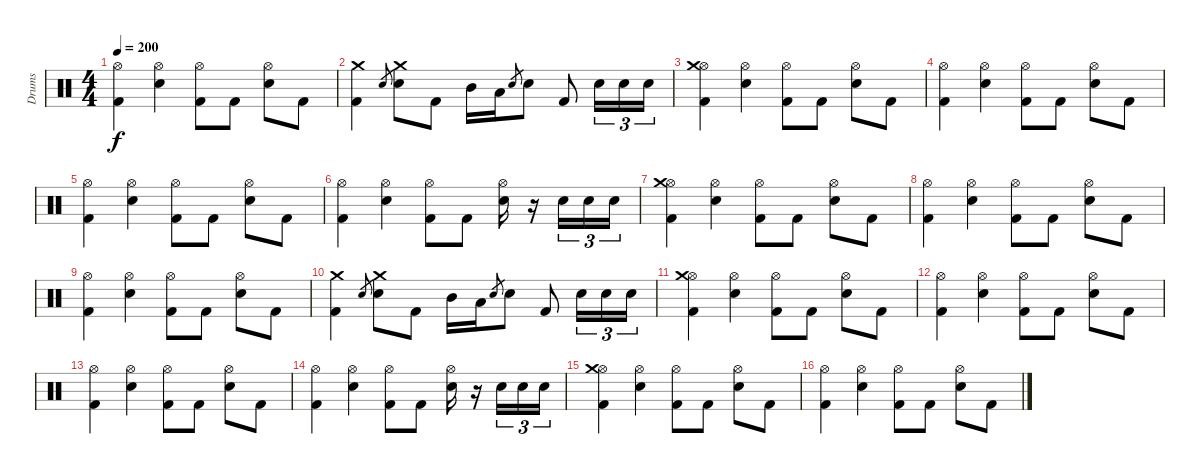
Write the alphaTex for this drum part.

\track ("Drums" "Drums") {instrument percussion}
\staff {score}
\articulation defaults
\ts (4 4)
\tempo 200
\clef neutral
\ks c
("Hi-Hat (open)" "Kick (hit) 2").4{dy f} ("Hi-Hat (open)" "Snare (hit) 2").4 ("Hi-Hat (open)" "Kick (hit) 2").8 "Kick (hit) 2".8 ("Hi-Hat (open)" "Snare (hit) 2").8 "Kick (hit) 2".8 |
("Crash medium (hit)" "Kick (hit) 2").4 "Snare (hit) 2".8{gr} ("Crash medium (hit)" "Snare (hit) 2").8 "Kick (hit) 2".8 "Mid Tom (hit)".16 "Low Tom (hit)".16 "Snare (hit) 2".8{gr} "Snare (hit) 2".8 "Kick (hit) 2".8 "Snare (hit) 2".16{tu (3 2)} "Snare (hit) 2".16{tu (3 2)} "Snare (hit) 2".16{tu (3 2)} |
("Hi-Hat (open)" "Crash medium (hit)" "Kick (hit) 2").4 ("Hi-Hat (open)" "Snare (hit) 2").4 ("Hi-Hat (open)" "Kick (hit) 2").8 "Kick (hit) 2".8 ("Hi-Hat (open)" "Snare (hit) 2").8 "Kick (hit) 2".8 |
("Hi-Hat (open)" "Kick (hit) 2").4 ("Hi-Hat (open)" "Snare (hit) 2").4 ("Hi-Hat (open)" "Kick (hit) 2").8 "Kick (hit) 2".8 ("Hi-Hat (open)" "Snare (hit) 2").8 "Kick (hit) 2".8 |
("Hi-Hat (open)" "Kick (hit) 2").4 ("Hi-Hat (open)" "Snare (hit) 2").4 ("Hi-Hat (open)" "Kick (hit) 2").8 "Kick (hit) 2".8 ("Hi-Hat (open)" "Snare (hit) 2").8 "Kick (hit) 2".8 |
("Hi-Hat (open)" "Kick (hit) 2").4 ("Hi-Hat (open)" "Snare (hit) 2").4 ("Hi-Hat (open)" "Kick (hit) 2").8 "Kick (hit) 2".8 ("Hi-Hat (open)" "Snare (hit) 2").16 r.16 "Snare (hit) 2".16{tu (3 2)} "Snare (hit) 2".16{tu (3 2)} "Snare (hit) 2".16{tu (3 2)} |
("Hi-Hat (open)" "Crash medium (hit)" "Kick (hit) 2").4 ("Hi-Hat (open)" "Snare (hit) 2").4 ("Hi-Hat (open)" "Kick (hit) 2").8 "Kick (hit) 2".8 ("Hi-Hat (open)" "Snare (hit) 2").8 "Kick (hit) 2".8 |
("Hi-Hat (open)" "Kick (hit) 2").4 ("Hi-Hat (open)" "Snare (hit) 2").4 ("Hi-Hat (open)" "Kick (hit) 2").8 "Kick (hit) 2".8 ("Hi-Hat (open)" "Snare (hit) 2").8 "Kick (hit) 2".8 |
("Hi-Hat (open)" "Kick (hit) 2").4 ("Hi-Hat (open)" "Snare (hit) 2").4 ("Hi-Hat (open)" "Kick (hit) 2").8 "Kick (hit) 2".8 ("Hi-Hat (open)" "Snare (hit) 2").8 "Kick (hit) 2".8 |
("Crash medium (hit)" "Kick (hit) 2").4 "Snare (hit) 2".8{gr} ("Crash medium (hit)" "Snare (hit) 2").8 "Kick (hit) 2".8 "Mid Tom (hit)".16 "Low Tom (hit)".16 "Snare (hit) 2".8{gr} "Snare (hit) 2".8 "Kick (hit) 2".8 "Snare (hit) 2".16{tu (3 2)} "Snare (hit) 2".16{tu (3 2)} "Snare (hit) 2".16{tu (3 2)} |
("Hi-Hat (open)" "Crash medium (hit)" "Kick (hit) 2").4 ("Hi-Hat (open)" "Snare (hit) 2").4 ("Hi-Hat (open)" "Kick (hit) 2").8 "Kick (hit) 2".8 ("Hi-Hat (open)" "Snare (hit) 2").8 "Kick (hit) 2".8 |
("Hi-Hat (open)" "Kick (hit) 2").4 ("Hi-Hat (open)" "Snare (hit) 2").4 ("Hi-Hat (open)" "Kick (hit) 2").8 "Kick (hit) 2".8 ("Hi-Hat (open)" "Snare (hit) 2").8 "Kick (hit) 2".8 |
("Hi-Hat (open)" "Kick (hit) 2").4 ("Hi-Hat (open)" "Snare (hit) 2").4 ("Hi-Hat (open)" "Kick (hit) 2").8 "Kick (hit) 2".8 ("Hi-Hat (open)" "Snare (hit) 2").8 "Kick (hit) 2".8 |
("Hi-Hat (open)" "Kick (hit) 2").4 ("Hi-Hat (open)" "Snare (hit) 2").4 ("Hi-Hat (open)" "Kick (hit) 2").8 "Kick (hit) 2".8 ("Hi-Hat (open)" "Snare (hit) 2").16 r.16 "Snare (hit) 2".16{tu (3 2)} "Snare (hit) 2".16{tu (3 2)} "Snare (hit) 2".16{tu (3 2)} |
("Hi-Hat (open)" "Crash medium (hit)" "Kick (hit) 2").4 ("Hi-Hat (open)" "Snare (hit) 2").4 ("Hi-Hat (open)" "Kick (hit) 2").8 "Kick (hit) 2".8 ("Hi-Hat (open)" "Snare (hit) 2").8 "Kick (hit) 2".8 |
("Hi-Hat (open)" "Kick (hit) 2").4 ("Hi-Hat (open)" "Snare (hit) 2").4 ("Hi-Hat (open)" "Kick (hit) 2").8 "Kick (hit) 2".8 ("Hi-Hat (open)" "Snare (hit) 2").8 "Kick (hit) 2".8
